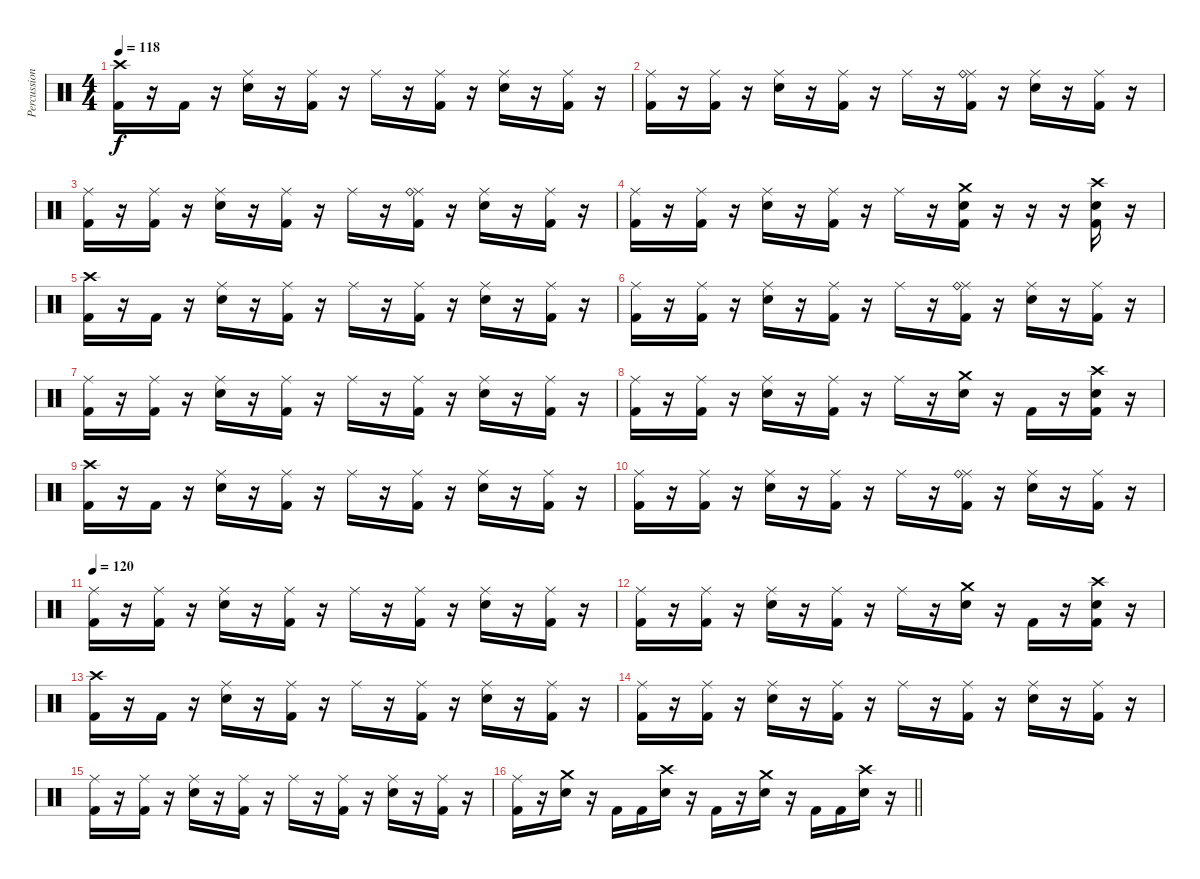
\track ("Percussion" "Percussion") {instrument percussion}
\staff {score}
\articulation defaults
\ts (4 4)
\section ("" "")
\tempo 118
\clef neutral
\ks c
("Crash high (hit)" "Kick (hit) 2").16{dy f} r.16 "Kick (hit) 2".16 r.16 ("Ride (middle)" "Electric Snare (hit)").16 r.16 ("Ride (middle)" "Kick (hit) 2").16 r.16 "Ride (middle)".16 r.16 ("Ride (middle)" "Kick (hit) 2").16 r.16 ("Ride (middle)" "Electric Snare (hit)").16 r.16 ("Ride (middle)" "Kick (hit) 2").16 r.16 |
("Ride (middle)" "Kick (hit) 2").16 r.16 ("Ride (middle)" "Kick (hit) 2").16 r.16 ("Ride (middle)" "Electric Snare (hit)").16 r.16 ("Ride (middle)" "Kick (hit) 2").16 r.16 "Ride (middle)".16 r.16 ("Ride (middle)" "Ride (bell)" "Kick (hit) 2").16 r.16 ("Ride (middle)" "Electric Snare (hit)").16 r.16 ("Ride (middle)" "Kick (hit) 2").16 r.16 |
("Ride (middle)" "Kick (hit) 2").16 r.16 ("Ride (middle)" "Kick (hit) 2").16 r.16 ("Ride (middle)" "Electric Snare (hit)").16 r.16 ("Ride (middle)" "Kick (hit) 2").16 r.16 "Ride (middle)".16 r.16 ("Ride (middle)" "Ride (bell)" "Kick (hit) 2").16 r.16 ("Ride (middle)" "Electric Snare (hit)").16 r.16 ("Ride (middle)" "Kick (hit) 2").16 r.16 |
("Ride (middle)" "Kick (hit) 2").16 r.16 ("Ride (middle)" "Kick (hit) 2").16 r.16 ("Ride (middle)" "Electric Snare (hit)").16 r.16 ("Ride (middle)" "Kick (hit) 2").16 r.16 "Ride (middle)".16 r.16 ("Crash medium (hit)" "Electric Snare (hit)" "Kick (hit) 2").16 r.16 r.16 r.16 ("Crash high (hit)" "Electric Snare (hit)" "Kick (hit) 2").16 r.16 |
("Crash high (hit)" "Kick (hit) 2").16 r.16 "Kick (hit) 2".16 r.16 ("Ride (middle)" "Electric Snare (hit)").16 r.16 ("Ride (middle)" "Kick (hit) 2").16 r.16 "Ride (middle)".16 r.16 ("Ride (middle)" "Kick (hit) 2").16 r.16 ("Ride (middle)" "Electric Snare (hit)").16 r.16 ("Ride (middle)" "Kick (hit) 2").16 r.16 |
("Ride (middle)" "Kick (hit) 2").16 r.16 ("Ride (middle)" "Kick (hit) 2").16 r.16 ("Ride (middle)" "Electric Snare (hit)").16 r.16 ("Ride (middle)" "Kick (hit) 2").16 r.16 "Ride (middle)".16 r.16 ("Ride (middle)" "Ride (bell)" "Kick (hit) 2").16 r.16 ("Ride (middle)" "Electric Snare (hit)").16 r.16 ("Ride (middle)" "Kick (hit) 2").16 r.16 |
("Ride (middle)" "Kick (hit) 2").16 r.16 ("Ride (middle)" "Kick (hit) 2").16 r.16 ("Ride (middle)" "Electric Snare (hit)").16 r.16 ("Ride (middle)" "Kick (hit) 2").16 r.16 "Ride (middle)".16 r.16 ("Ride (middle)" "Kick (hit) 2").16 r.16 ("Ride (middle)" "Electric Snare (hit)").16 r.16 ("Ride (middle)" "Kick (hit) 2").16 r.16 |
("Ride (middle)" "Kick (hit) 2").16 r.16 ("Ride (middle)" "Kick (hit) 2").16 r.16 ("Ride (middle)" "Electric Snare (hit)").16 r.16 ("Ride (middle)" "Kick (hit) 2").16 r.16 "Ride (middle)".16 r.16 ("Crash medium (hit)" "Electric Snare (hit)").16 r.16 "Kick (hit) 2".16 r.16 ("Crash high (hit)" "Electric Snare (hit)" "Kick (hit) 2").16 r.16 |
("Crash high (hit)" "Kick (hit) 2").16 r.16 "Kick (hit) 2".16 r.16 ("Ride (middle)" "Electric Snare (hit)").16 r.16 ("Ride (middle)" "Kick (hit) 2").16 r.16 "Ride (middle)".16 r.16 ("Ride (middle)" "Kick (hit) 2").16 r.16 ("Ride (middle)" "Electric Snare (hit)").16 r.16 ("Ride (middle)" "Kick (hit) 2").16 r.16 |
("Ride (middle)" "Kick (hit) 2").16 r.16 ("Ride (middle)" "Kick (hit) 2").16 r.16 ("Ride (middle)" "Electric Snare (hit)").16 r.16 ("Ride (middle)" "Kick (hit) 2").16 r.16 "Ride (middle)".16 r.16 ("Ride (middle)" "Ride (bell)" "Kick (hit) 2").16 r.16 ("Ride (middle)" "Electric Snare (hit)").16 r.16 ("Ride (middle)" "Kick (hit) 2").16 r.16 |
\tempo 120
("Ride (middle)" "Kick (hit) 2").16 r.16 ("Ride (middle)" "Kick (hit) 2").16 r.16 ("Ride (middle)" "Electric Snare (hit)").16 r.16 ("Ride (middle)" "Kick (hit) 2").16 r.16 "Ride (middle)".16 r.16 ("Ride (middle)" "Kick (hit) 2").16 r.16 ("Ride (middle)" "Electric Snare (hit)").16 r.16 ("Ride (middle)" "Kick (hit) 2").16 r.16 |
("Ride (middle)" "Kick (hit) 2").16 r.16 ("Ride (middle)" "Kick (hit) 2").16 r.16 ("Ride (middle)" "Electric Snare (hit)").16 r.16 ("Ride (middle)" "Kick (hit) 2").16 r.16 "Ride (middle)".16 r.16 ("Crash medium (hit)" "Electric Snare (hit)").16 r.16 "Kick (hit) 2".16 r.16 ("Crash high (hit)" "Electric Snare (hit)" "Kick (hit) 2").16 r.16 |
("Crash high (hit)" "Kick (hit) 2").16 r.16 "Kick (hit) 2".16 r.16 ("Ride (middle)" "Electric Snare (hit)").16 r.16 ("Ride (middle)" "Kick (hit) 2").16 r.16 "Ride (middle)".16 r.16 ("Ride (middle)" "Kick (hit) 2").16 r.16 ("Ride (middle)" "Electric Snare (hit)").16 r.16 ("Ride (middle)" "Kick (hit) 2").16 r.16 |
("Ride (middle)" "Kick (hit) 2").16 r.16 ("Ride (middle)" "Kick (hit) 2").16 r.16 ("Ride (middle)" "Electric Snare (hit)").16 r.16 ("Ride (middle)" "Kick (hit) 2").16 r.16 "Ride (middle)".16 r.16 ("Ride (middle)" "Kick (hit) 2").16 r.16 ("Ride (middle)" "Electric Snare (hit)").16 r.16 ("Ride (middle)" "Kick (hit) 2").16 r.16 |
("Ride (middle)" "Kick (hit) 2").16 r.16 ("Ride (middle)" "Kick (hit) 2").16 r.16 ("Ride (middle)" "Electric Snare (hit)").16 r.16 ("Ride (middle)" "Kick (hit) 2").16 r.16 "Ride (middle)".16 r.16 ("Ride (middle)" "Kick (hit) 2").16 r.16 ("Ride (middle)" "Electric Snare (hit)").16 r.16 ("Ride (middle)" "Kick (hit) 2").16 r.16 |
\barLineRight lightlight
("Ride (middle)" "Kick (hit) 2").16 r.16 ("Crash medium (hit)" "Electric Snare (hit)").16 r.16 "Kick (hit) 2".16 "Kick (hit) 2".16 ("Crash high (hit)" "Electric Snare (hit)").16 r.16 "Kick (hit) 2".16 r.16 ("Crash medium (hit)" "Electric Snare (hit)").16 r.16 "Kick (hit) 2".16 "Kick (hit) 2".16 ("Crash high (hit)" "Electric Snare (hit)").16 r.16
